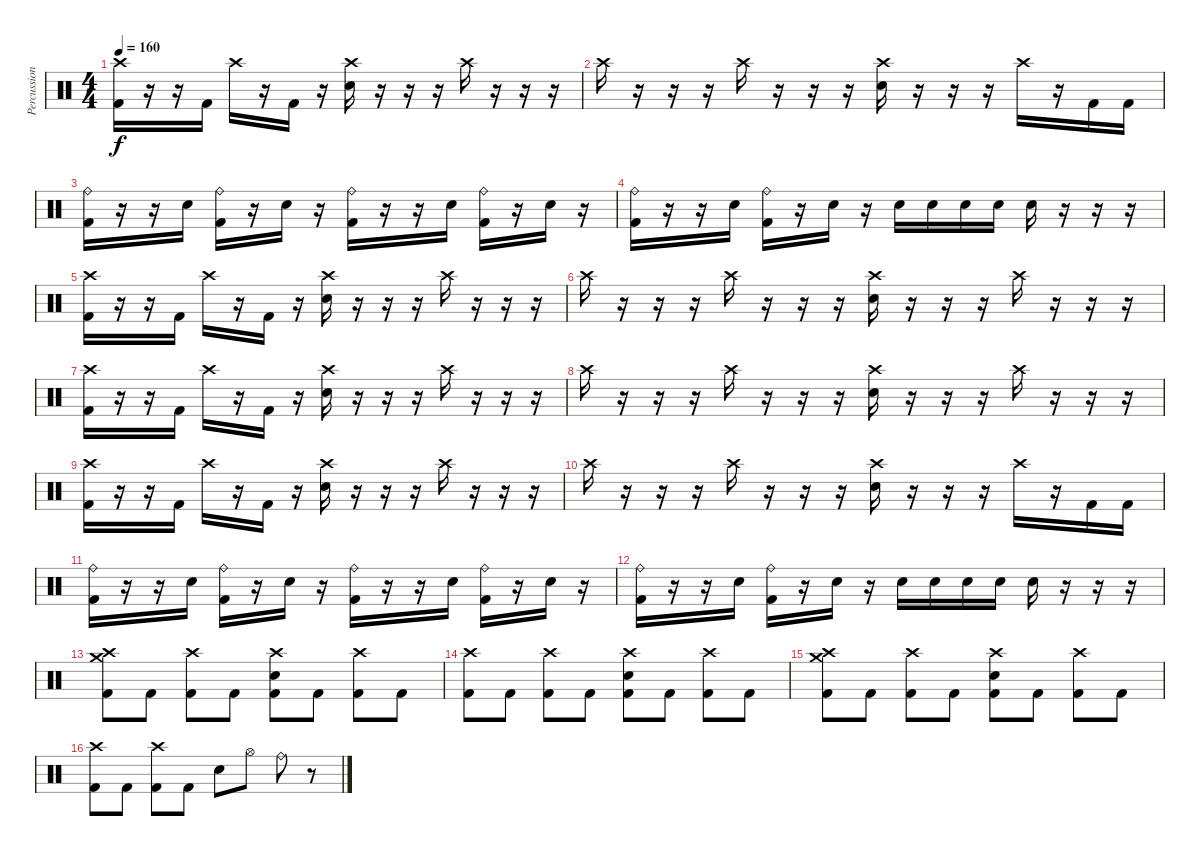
\track ("Percussion" "Percussion") {instrument percussion}
\staff {score}
\articulation defaults
\ts (4 4)
\tempo 160
\clef neutral
\ks c
("Crash high (hit)" "Kick (hit) 2").16{dy f} r.16 r.16 "Kick (hit) 2".16 "Crash high (hit)".16 r.16 "Kick (hit) 2".16 r.16 ("Crash high (hit)" "Snare (hit) 2").16 r.16 r.16 r.16 "Crash high (hit)".16 r.16 r.16 r.16 |
"Crash high (hit)".16 r.16 r.16 r.16 "Crash high (hit)".16 r.16 r.16 r.16 ("Crash high (hit)" "Snare (hit) 2").16 r.16 r.16 r.16 "Crash high (hit)".16 r.16 "Kick (hit) 2".16 "Kick (hit) 2".16 |
("Ride (bell)" "Kick (hit) 2").16 r.16 r.16 "Snare (hit) 2".16 ("Ride (bell)" "Kick (hit) 2").16 r.16 "Snare (hit) 2".16 r.16 ("Ride (bell)" "Kick (hit) 2").16 r.16 r.16 "Snare (hit) 2".16 ("Ride (bell)" "Kick (hit) 2").16 r.16 "Snare (hit) 2".16 r.16 |
("Ride (bell)" "Kick (hit) 2").16 r.16 r.16 "Snare (hit) 2".16 ("Ride (bell)" "Kick (hit) 2").16 r.16 "Snare (hit) 2".16 r.16 "Snare (hit) 2".16 "Snare (hit) 2".16 "Snare (hit) 2".16 "Snare (hit) 2".16 "Snare (hit) 2".16 r.16 r.16 r.16 |
("Crash high (hit)" "Kick (hit) 2").16 r.16 r.16 "Kick (hit) 2".16 "Crash high (hit)".16 r.16 "Kick (hit) 2".16 r.16 ("Crash high (hit)" "Snare (hit) 2").16 r.16 r.16 r.16 "Crash high (hit)".16 r.16 r.16 r.16 |
"Crash high (hit)".16 r.16 r.16 r.16 "Crash high (hit)".16 r.16 r.16 r.16 ("Crash high (hit)" "Snare (hit) 2").16 r.16 r.16 r.16 "Crash high (hit)".16 r.16 r.16 r.16 |
("Crash high (hit)" "Kick (hit) 2").16 r.16 r.16 "Kick (hit) 2".16 "Crash high (hit)".16 r.16 "Kick (hit) 2".16 r.16 ("Crash high (hit)" "Snare (hit) 2").16 r.16 r.16 r.16 "Crash high (hit)".16 r.16 r.16 r.16 |
"Crash high (hit)".16 r.16 r.16 r.16 "Crash high (hit)".16 r.16 r.16 r.16 ("Crash high (hit)" "Snare (hit) 2").16 r.16 r.16 r.16 "Crash high (hit)".16 r.16 r.16 r.16 |
("Crash high (hit)" "Kick (hit) 2").16 r.16 r.16 "Kick (hit) 2".16 "Crash high (hit)".16 r.16 "Kick (hit) 2".16 r.16 ("Crash high (hit)" "Snare (hit) 2").16 r.16 r.16 r.16 "Crash high (hit)".16 r.16 r.16 r.16 |
"Crash high (hit)".16 r.16 r.16 r.16 "Crash high (hit)".16 r.16 r.16 r.16 ("Crash high (hit)" "Snare (hit) 2").16 r.16 r.16 r.16 "Crash high (hit)".16 r.16 "Kick (hit) 2".16 "Kick (hit) 2".16 |
("Ride (bell)" "Kick (hit) 2").16 r.16 r.16 "Snare (hit) 2".16 ("Ride (bell)" "Kick (hit) 2").16 r.16 "Snare (hit) 2".16 r.16 ("Ride (bell)" "Kick (hit) 2").16 r.16 r.16 "Snare (hit) 2".16 ("Ride (bell)" "Kick (hit) 2").16 r.16 "Snare (hit) 2".16 r.16 |
("Ride (bell)" "Kick (hit) 2").16 r.16 r.16 "Snare (hit) 2".16 ("Ride (bell)" "Kick (hit) 2").16 r.16 "Snare (hit) 2".16 r.16 "Snare (hit) 2".16 "Snare (hit) 2".16 "Snare (hit) 2".16 "Snare (hit) 2".16 "Snare (hit) 2".16 r.16 r.16 r.16 |
("Crash high (hit)" "Crash medium (hit)" "Kick (hit) 2").8 "Kick (hit) 2".8 ("Crash high (hit)" "Kick (hit) 2").8 "Kick (hit) 2".8 ("Crash high (hit)" "Snare (hit) 2" "Kick (hit) 2").8 "Kick (hit) 2".8 ("Crash high (hit)" "Kick (hit) 2").8 "Kick (hit) 2".8 |
("Crash high (hit)" "Kick (hit) 2").8 "Kick (hit) 2".8 ("Crash high (hit)" "Kick (hit) 2").8 "Kick (hit) 2".8 ("Crash high (hit)" "Snare (hit) 2" "Kick (hit) 2").8 "Kick (hit) 2".8 ("Crash high (hit)" "Kick (hit) 2").8 "Kick (hit) 2".8 |
("Crash high (hit)" "Crash medium (hit)" "Kick (hit) 2").8 "Kick (hit) 2".8 ("Crash high (hit)" "Kick (hit) 2").8 "Kick (hit) 2".8 ("Crash high (hit)" "Snare (hit) 2" "Kick (hit) 2").8 "Kick (hit) 2".8 ("Crash high (hit)" "Kick (hit) 2").8 "Kick (hit) 2".8 |
("Crash high (hit)" "Kick (hit) 2").8 "Kick (hit) 2".8 ("Crash high (hit)" "Kick (hit) 2").8 "Kick (hit) 2".8 "Snare (hit) 2".8 "Hi-Hat (open)".8 "Ride (bell)".8 r.8
